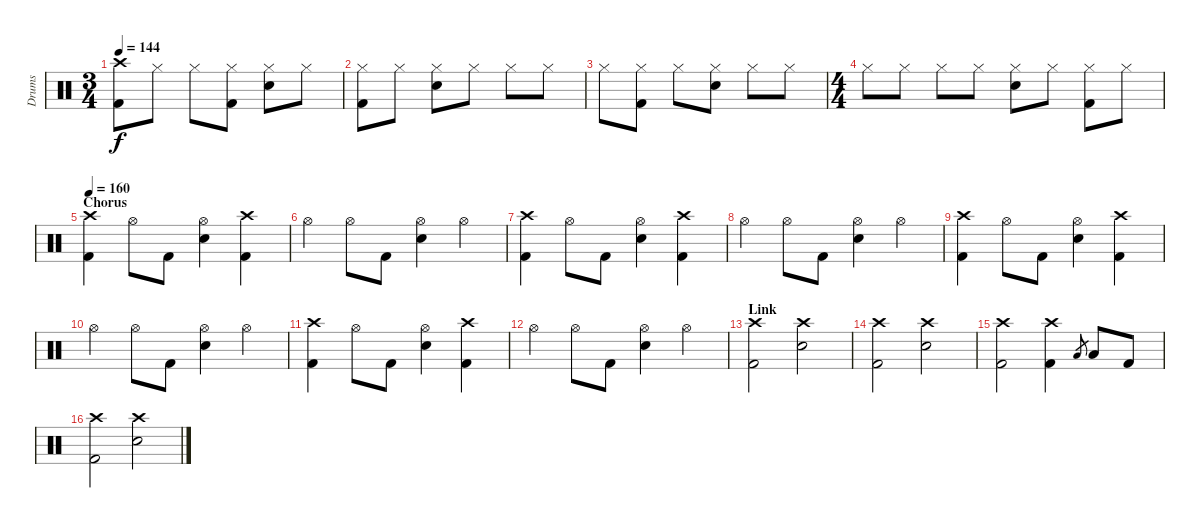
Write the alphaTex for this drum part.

\track ("Drums" "Drums") {instrument percussion}
\staff {score}
\articulation defaults
\ts (3 4)
\tempo 144
\clef neutral
\ks c
("Crash high (hit)" "Kick (hit) 2").8{dy f} "Hi-Hat (closed)".8 "Hi-Hat (closed)".8 ("Hi-Hat (closed)" "Kick (hit) 2").8 ("Hi-Hat (closed)" "Electric Snare (hit)").8 "Hi-Hat (closed)".8 |
("Hi-Hat (closed)" "Kick (hit) 2").8 "Hi-Hat (closed)".8 ("Hi-Hat (closed)" "Electric Snare (hit)").8 "Hi-Hat (closed)".8 "Hi-Hat (closed)".8 "Hi-Hat (closed)".8 |
"Hi-Hat (closed)".8 ("Hi-Hat (closed)" "Kick (hit) 2").8 "Hi-Hat (closed)".8 ("Hi-Hat (closed)" "Electric Snare (hit)").8 "Hi-Hat (closed)".8 "Hi-Hat (closed)".8 |
\ts (4 4)
"Hi-Hat (closed)".8 "Hi-Hat (closed)".8 "Hi-Hat (closed)".8 "Hi-Hat (closed)".8 ("Hi-Hat (closed)" "Electric Snare (hit)").8 "Hi-Hat (closed)".8 ("Hi-Hat (closed)" "Kick (hit) 2").8 "Hi-Hat (closed)".8 |
\section ("" "Chorus")
\tempo 160
("Crash high (hit)" "Kick (hit) 2").4 "Hi-Hat (open)".8 "Kick (hit) 2".8 ("Hi-Hat (open)" "Electric Snare (hit)").4 ("Crash high (hit)" "Kick (hit) 2").4 |
"Hi-Hat (open)".4 "Hi-Hat (open)".8 "Kick (hit) 2".8 ("Hi-Hat (open)" "Electric Snare (hit)").4 "Hi-Hat (open)".4 |
("Crash high (hit)" "Kick (hit) 2").4 "Hi-Hat (open)".8 "Kick (hit) 2".8 ("Hi-Hat (open)" "Electric Snare (hit)").4 ("Crash high (hit)" "Kick (hit) 2").4 |
"Hi-Hat (open)".4 "Hi-Hat (open)".8 "Kick (hit) 2".8 ("Hi-Hat (open)" "Electric Snare (hit)").4 "Hi-Hat (open)".4 |
("Crash high (hit)" "Kick (hit) 2").4 "Hi-Hat (open)".8 "Kick (hit) 2".8 ("Hi-Hat (open)" "Electric Snare (hit)").4 ("Crash high (hit)" "Kick (hit) 2").4 |
"Hi-Hat (open)".4 "Hi-Hat (open)".8 "Kick (hit) 2".8 ("Hi-Hat (open)" "Electric Snare (hit)").4 "Hi-Hat (open)".4 |
("Crash high (hit)" "Kick (hit) 2").4 "Hi-Hat (open)".8 "Kick (hit) 2".8 ("Hi-Hat (open)" "Electric Snare (hit)").4 ("Crash high (hit)" "Kick (hit) 2").4 |
"Hi-Hat (open)".4 "Hi-Hat (open)".8 "Kick (hit) 2".8 ("Hi-Hat (open)" "Electric Snare (hit)").4 "Hi-Hat (open)".4 |
\section ("" "Link")
("Crash high (hit)" "Kick (hit) 2").2 ("Crash high (hit)" "Electric Snare (hit)").2 |
("Crash high (hit)" "Kick (hit) 2").2 ("Crash high (hit)" "Electric Snare (hit)").2 |
("Crash high (hit)" "Kick (hit) 2").2 ("Crash high (hit)" "Kick (hit) 2").4 "Low Tom (hit)".8{gr} "Low Tom (hit)".8 "Kick (hit) 2".8 |
("Crash high (hit)" "Kick (hit) 2").2 ("Crash high (hit)" "Electric Snare (hit)").2
